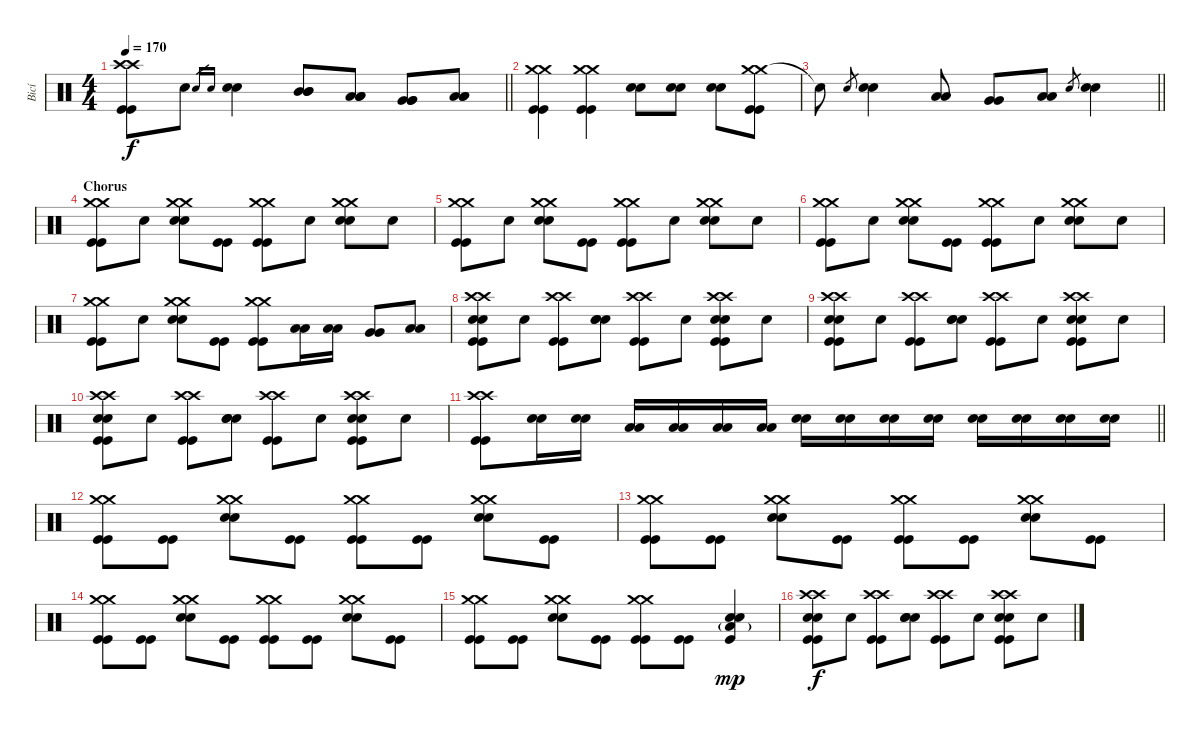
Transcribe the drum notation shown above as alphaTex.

\track ("Bicí" "Bicí") {instrument percussion}
\staff {score}
\articulation defaults
\ts (4 4)
\tempo 170
\clef neutral
\barLineRight lightlight
\ks c
("Crash high (hit)" "Crash high (hit)" "Kick (hit)" "Kick (hit)").8{dy f} "Snare (hit)".8 "Electric Snare (hit)".16{gr} "Electric Snare (hit)".16{gr} ("Electric Snare (hit)" "Electric Snare (hit)").4 ("Mid Tom (hit)" "Mid Tom (hit)" "Mid Tom (hit)").8 ("Low Tom (hit)" "Low Tom (hit)" "Low Tom (hit)").8 ("Very Low Tom (hit)" "Very Low Tom (hit)" "Very Low Tom (hit)").8 ("Low Floor Tom (hit)" "Low Floor Tom (hit)" "Low Floor Tom (hit)").8 |
\section ("" "")
("Crash medium (hit)" "Crash medium (hit)" "Kick (hit)" "Kick (hit)").4 ("Crash medium (hit)" "Crash medium (hit)" "Kick (hit)" "Kick (hit)").4 ("Electric Snare (hit)" "Electric Snare (hit)").8 ("Electric Snare (hit)" "Electric Snare (hit)").8 ("Electric Snare (hit)" "Electric Snare (hit)").8 ("Crash medium (hit)" "Crash medium (hit)" "Kick (hit)" "Kick (hit)").8 |
\barLineRight lightlight "Snare (hit)"{t}.8 "Electric Snare (hit)".8{gr}
("Electric Snare (hit)" "Electric Snare (hit)").4 ("Low Tom (hit)" "Low Tom (hit)").8 ("Very Low Tom (hit)" "Very Low Tom (hit)").8 ("Low Floor Tom (hit)" "Low Floor Tom (hit)").8 "Electric Snare (hit)".8{gr} ("Electric Snare (hit)" "Electric Snare (hit)").4 |
\section ("" "Chorus")
("Crash medium (hit)" "Crash medium (hit)" "Kick (hit)" "Kick (hit)").8 "Snare (hit)".8 ("Crash medium (hit)" "Crash medium (hit)" "Electric Snare (hit)" "Electric Snare (hit)").8 ("Kick (hit)" "Kick (hit)").8 ("Crash medium (hit)" "Crash medium (hit)" "Kick (hit)" "Kick (hit)").8 "Snare (hit)".8 ("Crash medium (hit)" "Crash medium (hit)" "Electric Snare (hit)" "Electric Snare (hit)").8 "Snare (hit)".8 |
("Crash medium (hit)" "Crash medium (hit)" "Kick (hit)" "Kick (hit)").8 "Snare (hit)".8 ("Crash medium (hit)" "Crash medium (hit)" "Electric Snare (hit)" "Electric Snare (hit)").8 ("Kick (hit)" "Kick (hit)").8 ("Crash medium (hit)" "Crash medium (hit)" "Kick (hit)" "Kick (hit)").8 "Snare (hit)".8 ("Crash medium (hit)" "Crash medium (hit)" "Electric Snare (hit)" "Electric Snare (hit)").8 "Snare (hit)".8 |
("Crash medium (hit)" "Crash medium (hit)" "Kick (hit)" "Kick (hit)").8 "Snare (hit)".8 ("Crash medium (hit)" "Crash medium (hit)" "Electric Snare (hit)" "Electric Snare (hit)").8 ("Kick (hit)" "Kick (hit)").8 ("Crash medium (hit)" "Crash medium (hit)" "Kick (hit)" "Kick (hit)").8 "Snare (hit)".8 ("Crash medium (hit)" "Crash medium (hit)" "Electric Snare (hit)" "Electric Snare (hit)").8 "Snare (hit)".8 |
("Crash medium (hit)" "Crash medium (hit)" "Kick (hit)" "Kick (hit)").8 "Snare (hit)".8 ("Crash medium (hit)" "Crash medium (hit)" "Electric Snare (hit)" "Electric Snare (hit)").8 ("Kick (hit)" "Kick (hit)").8 ("Crash medium (hit)" "Crash medium (hit)" "Kick (hit)" "Kick (hit)").8 ("Low Tom (hit)" "Low Tom (hit)").16 ("Low Tom (hit)" "Low Tom (hit)").16 ("Very Low Tom (hit)" "Very Low Tom (hit)").8 ("Low Floor Tom (hit)" "Low Floor Tom (hit)").8 |
("Crash high (hit)" "Crash high (hit)" "Electric Snare (hit)" "Electric Snare (hit)" "Kick (hit)" "Kick (hit)").8 "Snare (hit)".8 ("Crash high (hit)" "Crash high (hit)" "Kick (hit)" "Kick (hit)").8 ("Electric Snare (hit)" "Electric Snare (hit)" "Snare (hit)").8 ("Crash high (hit)" "Crash high (hit)" "Kick (hit)" "Kick (hit)").8 "Snare (hit)".8 ("Crash high (hit)" "Crash high (hit)" "Electric Snare (hit)" "Electric Snare (hit)" "Kick (hit)" "Kick (hit)").8 "Snare (hit)".8 |
("Crash high (hit)" "Crash high (hit)" "Electric Snare (hit)" "Electric Snare (hit)" "Kick (hit)" "Kick (hit)").8 "Snare (hit)".8 ("Crash high (hit)" "Crash high (hit)" "Kick (hit)" "Kick (hit)").8 ("Electric Snare (hit)" "Electric Snare (hit)" "Snare (hit)").8 ("Crash high (hit)" "Crash high (hit)" "Kick (hit)" "Kick (hit)").8 "Snare (hit)".8 ("Crash high (hit)" "Crash high (hit)" "Electric Snare (hit)" "Electric Snare (hit)" "Kick (hit)" "Kick (hit)").8 "Snare (hit)".8 |
("Crash high (hit)" "Crash high (hit)" "Electric Snare (hit)" "Electric Snare (hit)" "Kick (hit)" "Kick (hit)").8 "Snare (hit)".8 ("Crash high (hit)" "Crash high (hit)" "Kick (hit)" "Kick (hit)").8 ("Electric Snare (hit)" "Electric Snare (hit)" "Snare (hit)").8 ("Crash high (hit)" "Crash high (hit)" "Kick (hit)" "Kick (hit)").8 "Snare (hit)".8 ("Crash high (hit)" "Crash high (hit)" "Electric Snare (hit)" "Electric Snare (hit)" "Kick (hit)" "Kick (hit)").8 "Snare (hit)".8 |
\barLineRight lightlight
("Crash high (hit)" "Crash high (hit)" "Kick (hit)" "Kick (hit)").8 ("Electric Snare (hit)" "Electric Snare (hit)").16 ("Electric Snare (hit)" "Electric Snare (hit)").16 ("Low Tom (hit)" "Low Tom (hit)").16 ("Low Tom (hit)" "Low Tom (hit)").16 ("Low Tom (hit)" "Low Tom (hit)").16 ("Low Tom (hit)" "Low Tom (hit)").16 ("Electric Snare (hit)" "Electric Snare (hit)").16 ("Electric Snare (hit)" "Electric Snare (hit)").16 ("Electric Snare (hit)" "Electric Snare (hit)").16 ("Electric Snare (hit)" "Electric Snare (hit)").16 ("Electric Snare (hit)" "Electric Snare (hit)").16 ("Electric Snare (hit)" "Electric Snare (hit)").16 ("Electric Snare (hit)" "Electric Snare (hit)").16 ("Electric Snare (hit)" "Electric Snare (hit)").16 |
\section ("" "")
("Crash medium (hit)" "Crash medium (hit)" "Kick (hit)" "Kick (hit)").8 ("Kick (hit)" "Kick (hit)").8 ("Crash medium (hit)" "Crash medium (hit)" "Electric Snare (hit)" "Electric Snare (hit)").8 ("Kick (hit)" "Kick (hit)").8 ("Crash medium (hit)" "Crash medium (hit)" "Kick (hit)" "Kick (hit)").8 ("Kick (hit)" "Kick (hit)").8 ("Crash medium (hit)" "Crash medium (hit)" "Electric Snare (hit)" "Electric Snare (hit)").8 ("Kick (hit)" "Kick (hit)").8 |
("Crash medium (hit)" "Crash medium (hit)" "Kick (hit)" "Kick (hit)").8 ("Kick (hit)" "Kick (hit)").8 ("Crash medium (hit)" "Crash medium (hit)" "Electric Snare (hit)" "Electric Snare (hit)").8 ("Kick (hit)" "Kick (hit)").8 ("Crash medium (hit)" "Crash medium (hit)" "Kick (hit)" "Kick (hit)").8 ("Kick (hit)" "Kick (hit)").8 ("Crash medium (hit)" "Crash medium (hit)" "Electric Snare (hit)" "Electric Snare (hit)").8 ("Kick (hit)" "Kick (hit)").8 |
("Crash medium (hit)" "Crash medium (hit)" "Kick (hit)" "Kick (hit)").8 ("Kick (hit)" "Kick (hit)").8 ("Crash medium (hit)" "Crash medium (hit)" "Electric Snare (hit)" "Electric Snare (hit)").8 ("Kick (hit)" "Kick (hit)").8 ("Crash medium (hit)" "Crash medium (hit)" "Kick (hit)" "Kick (hit)").8 ("Kick (hit)" "Kick (hit)").8 ("Crash medium (hit)" "Crash medium (hit)" "Electric Snare (hit)" "Electric Snare (hit)").8 ("Kick (hit)" "Kick (hit)").8 |
("Crash medium (hit)" "Crash medium (hit)" "Kick (hit)" "Kick (hit)").8 ("Kick (hit)" "Kick (hit)").8 ("Crash medium (hit)" "Crash medium (hit)" "Electric Snare (hit)" "Electric Snare (hit)").8 ("Kick (hit)" "Kick (hit)").8 ("Crash medium (hit)" "Crash medium (hit)" "Kick (hit)" "Kick (hit)").8 ("Kick (hit)" "Kick (hit)").8 ("Kick (hit)" "Low Floor Tom (hit)"{g} "Electric Snare (hit)" "Electric Snare (hit)").4{dy mp} |
("Crash high (hit)" "Crash high (hit)" "Electric Snare (hit)" "Electric Snare (hit)" "Kick (hit)" "Kick (hit)").8{dy f} "Snare (hit)".8 ("Crash high (hit)" "Crash high (hit)" "Kick (hit)" "Kick (hit)").8 ("Electric Snare (hit)" "Electric Snare (hit)" "Snare (hit)").8 ("Crash high (hit)" "Crash high (hit)" "Kick (hit)" "Kick (hit)").8 "Snare (hit)".8 ("Crash high (hit)" "Crash high (hit)" "Electric Snare (hit)" "Electric Snare (hit)" "Kick (hit)" "Kick (hit)").8 "Snare (hit)".8
